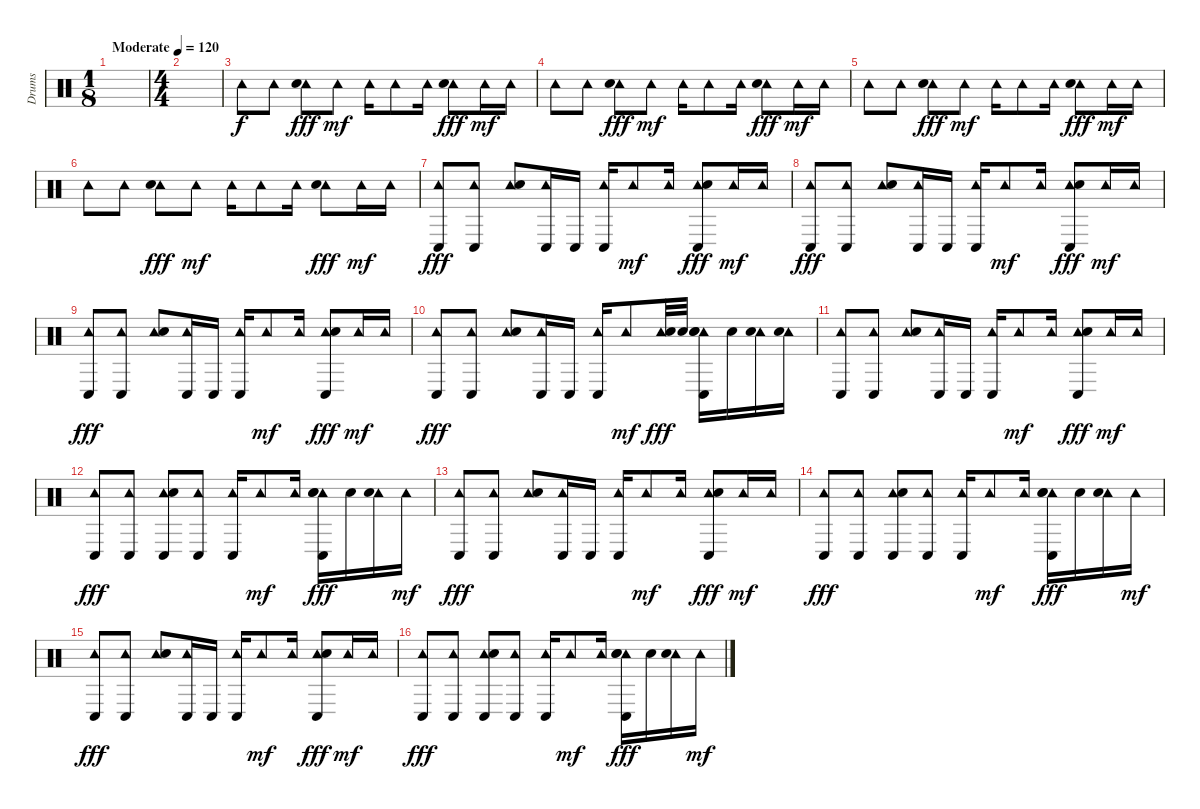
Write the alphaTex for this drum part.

\track ("Drums" "Drums") {instrument percussion}
\staff {score}
\articulation defaults
\ts (1 8)
\tempo (120 "Moderate")
\clef neutral
\ks c
|
\ts (4 4)
|
"Tambourine (hit)".8 "Tambourine (hit)".8 ("Tambourine (hit)" "Hand Clap (hit)").8{dy fff} "Tambourine (hit)".8{dy mf} "Tambourine (hit)".16 "Tambourine (hit)".8 "Tambourine (hit)".16 ("Tambourine (hit)" "Hand Clap (hit)").8{dy fff} "Tambourine (hit)".16{dy mf} "Tambourine (hit)".16 |
"Tambourine (hit)".8 "Tambourine (hit)".8 ("Tambourine (hit)" "Hand Clap (hit)").8{dy fff} "Tambourine (hit)".8{dy mf} "Tambourine (hit)".16 "Tambourine (hit)".8 "Tambourine (hit)".16 ("Tambourine (hit)" "Hand Clap (hit)").8{dy fff} "Tambourine (hit)".16{dy mf} "Tambourine (hit)".16 |
"Tambourine (hit)".8 "Tambourine (hit)".8 ("Tambourine (hit)" "Hand Clap (hit)").8{dy fff} "Tambourine (hit)".8{dy mf} "Tambourine (hit)".16 "Tambourine (hit)".8 "Tambourine (hit)".16 ("Tambourine (hit)" "Hand Clap (hit)").8{dy fff} "Tambourine (hit)".16{dy mf} "Tambourine (hit)".16 |
"Tambourine (hit)".8 "Tambourine (hit)".8 ("Tambourine (hit)" "Hand Clap (hit)").8{dy fff} "Tambourine (hit)".8{dy mf} "Tambourine (hit)".16 "Tambourine (hit)".8 "Tambourine (hit)".16 ("Tambourine (hit)" "Hand Clap (hit)").8{dy fff} "Tambourine (hit)".16{dy mf} "Tambourine (hit)".16 |
("Tambourine (hit)" "Conga low (hit)").8{dy fff} ("Tambourine (hit)" "Conga low (hit)").8 ("Tambourine (hit)" "Hand Clap (hit)").8 ("Tambourine (hit)" "Conga low (hit)").16 "Conga low (hit)".16 ("Tambourine (hit)" "Conga low (hit)").16 "Tambourine (hit)".8{dy mf} "Tambourine (hit)".16 ("Tambourine (hit)" "Hand Clap (hit)" "Conga low (hit)").8{dy fff} "Tambourine (hit)".16{dy mf} "Tambourine (hit)".16 |
("Tambourine (hit)" "Conga low (hit)").8{dy fff} ("Tambourine (hit)" "Conga low (hit)").8 ("Tambourine (hit)" "Hand Clap (hit)").8 ("Tambourine (hit)" "Conga low (hit)").16 "Conga low (hit)".16 ("Tambourine (hit)" "Conga low (hit)").16 "Tambourine (hit)".8{dy mf} "Tambourine (hit)".16 ("Tambourine (hit)" "Hand Clap (hit)" "Conga low (hit)").8{dy fff} "Tambourine (hit)".16{dy mf} "Tambourine (hit)".16 |
("Tambourine (hit)" "Conga low (hit)").8{dy fff} ("Tambourine (hit)" "Conga low (hit)").8 ("Tambourine (hit)" "Hand Clap (hit)").8 ("Tambourine (hit)" "Conga low (hit)").16 "Conga low (hit)".16 ("Tambourine (hit)" "Conga low (hit)").16 "Tambourine (hit)".8{dy mf} "Tambourine (hit)".16 ("Tambourine (hit)" "Hand Clap (hit)" "Conga low (hit)").8{dy fff} "Tambourine (hit)".16{dy mf} "Tambourine (hit)".16 |
("Tambourine (hit)" "Conga low (hit)").8{dy fff} ("Tambourine (hit)" "Conga low (hit)").8 ("Tambourine (hit)" "Hand Clap (hit)").8 ("Tambourine (hit)" "Conga low (hit)").16 "Conga low (hit)".16 ("Tambourine (hit)" "Conga low (hit)").16 "Tambourine (hit)".8{dy mf} ("Tambourine (hit)" "Snare (hit) 2").32{dy fff} "Snare (hit) 2".32 ("Tambourine (hit)" "Snare (hit) 2" "Hand Clap (hit)" "Conga low (hit)").16 "Snare (hit) 2".16 ("Tambourine (hit)" "Snare (hit) 2").16 ("Tambourine (hit)" "Snare (hit) 2").16 |
("Tambourine (hit)" "Conga low (hit)").8 ("Tambourine (hit)" "Conga low (hit)").8 ("Tambourine (hit)" "Hand Clap (hit)").8 ("Tambourine (hit)" "Conga low (hit)").16 "Conga low (hit)".16 ("Tambourine (hit)" "Conga low (hit)").16 "Tambourine (hit)".8{dy mf} "Tambourine (hit)".16 ("Tambourine (hit)" "Hand Clap (hit)" "Conga low (hit)").8{dy fff} "Tambourine (hit)".16{dy mf} "Tambourine (hit)".16 |
("Tambourine (hit)" "Conga low (hit)").8{dy fff} ("Tambourine (hit)" "Conga low (hit)").8 ("Tambourine (hit)" "Hand Clap (hit)" "Conga low (hit)").8 ("Tambourine (hit)" "Conga low (hit)").8 ("Tambourine (hit)" "Conga low (hit)").16 "Tambourine (hit)".8{dy mf} "Tambourine (hit)".16 ("Tambourine (hit)" "Snare (hit) 2" "Hand Clap (hit)" "Conga low (hit)").16{dy fff} "Snare (hit) 2".16 ("Tambourine (hit)" "Snare (hit) 2").16 "Tambourine (hit)".16{dy mf} |
("Tambourine (hit)" "Conga low (hit)").8{dy fff} ("Tambourine (hit)" "Conga low (hit)").8 ("Tambourine (hit)" "Hand Clap (hit)").8 ("Tambourine (hit)" "Conga low (hit)").16 "Conga low (hit)".16 ("Tambourine (hit)" "Conga low (hit)").16 "Tambourine (hit)".8{dy mf} "Tambourine (hit)".16 ("Tambourine (hit)" "Hand Clap (hit)" "Conga low (hit)").8{dy fff} "Tambourine (hit)".16{dy mf} "Tambourine (hit)".16 |
("Tambourine (hit)" "Conga low (hit)").8{dy fff} ("Tambourine (hit)" "Conga low (hit)").8 ("Tambourine (hit)" "Hand Clap (hit)" "Conga low (hit)").8 ("Tambourine (hit)" "Conga low (hit)").8 ("Tambourine (hit)" "Conga low (hit)").16 "Tambourine (hit)".8{dy mf} "Tambourine (hit)".16 ("Tambourine (hit)" "Snare (hit) 2" "Hand Clap (hit)" "Conga low (hit)").16{dy fff} "Snare (hit) 2".16 ("Tambourine (hit)" "Snare (hit) 2").16 "Tambourine (hit)".16{dy mf} |
("Tambourine (hit)" "Conga low (hit)").8{dy fff} ("Tambourine (hit)" "Conga low (hit)").8 ("Tambourine (hit)" "Hand Clap (hit)").8 ("Tambourine (hit)" "Conga low (hit)").16 "Conga low (hit)".16 ("Tambourine (hit)" "Conga low (hit)").16 "Tambourine (hit)".8{dy mf} "Tambourine (hit)".16 ("Tambourine (hit)" "Hand Clap (hit)" "Conga low (hit)").8{dy fff} "Tambourine (hit)".16{dy mf} "Tambourine (hit)".16 |
("Tambourine (hit)" "Conga low (hit)").8{dy fff} ("Tambourine (hit)" "Conga low (hit)").8 ("Tambourine (hit)" "Hand Clap (hit)" "Conga low (hit)").8 ("Tambourine (hit)" "Conga low (hit)").8 ("Tambourine (hit)" "Conga low (hit)").16 "Tambourine (hit)".8{dy mf} "Tambourine (hit)".16 ("Tambourine (hit)" "Snare (hit) 2" "Hand Clap (hit)" "Conga low (hit)").16{dy fff} "Snare (hit) 2".16 ("Tambourine (hit)" "Snare (hit) 2").16 "Tambourine (hit)".16{dy mf}
